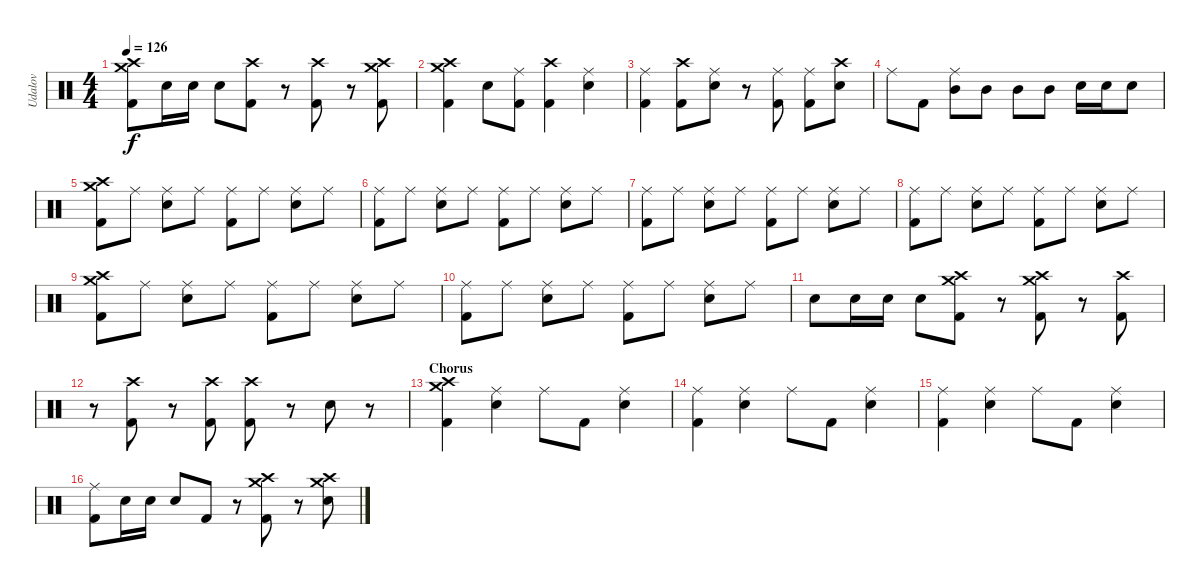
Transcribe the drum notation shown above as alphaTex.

\track ("Udalov" "Udalov") {instrument percussion}
\staff {score}
\articulation defaults
\ts (4 4)
\tempo 126
\clef neutral
\ks c
("Kick (hit) 2" "Crash high (hit)" "Crash medium (hit)").8{dy f} "Snare (hit) 2".16 "Electric Snare (hit)".16 "Snare (hit) 2".8 ("Kick (hit) 2" "Crash high (hit)").8 r.8 ("Kick (hit) 2" "Crash high (hit)").8 r.8 ("Kick (hit) 2" "Crash medium (hit)" "Crash high (hit)").8 |
("Kick (hit) 2" "Crash high (hit)" "Crash medium (hit)").4 "Snare (hit) 2".8 ("Kick (hit) 2" "Ride (middle)").8 ("Kick (hit) 2" "Crash high (hit)").4 ("Snare (hit) 2" "Ride (middle)").4 |
("Kick (hit) 2" "Ride (middle)").4 ("Kick (hit) 2" "Crash high (hit)").8 ("Snare (hit) 2" "Ride (middle)").8 r.8 ("Kick (hit) 2" "Ride (middle)").8 ("Kick (hit) 2" "Ride (middle)").8 ("Snare (hit) 2" "Crash high (hit)").8 |
"Ride (middle)".8 "Kick (hit) 2".8 ("Mid Tom (hit)" "Ride (middle)").8 "Mid Tom (hit)".8 "Mid Tom (hit)".8 "Mid Tom (hit)".8 "Electric Snare (hit)".16 "Electric Snare (hit)".16 "Electric Snare (hit)".8 |
("Kick (hit) 2" "Crash high (hit)" "Crash medium (hit)").8 "Ride (middle)".8 ("Snare (hit) 2" "Ride (middle)").8 "Ride (middle)".8 ("Kick (hit) 2" "Ride (middle)").8 "Ride (middle)".8 ("Snare (hit) 2" "Ride (middle)").8 "Ride (middle)".8 |
("Kick (hit) 2" "Ride (middle)").8 "Ride (middle)".8 ("Snare (hit) 2" "Ride (middle)").8 "Ride (middle)".8 ("Kick (hit) 2" "Ride (middle)").8 "Ride (middle)".8 ("Snare (hit) 2" "Ride (middle)").8 "Ride (middle)".8 |
("Kick (hit) 2" "Ride (middle)").8 "Ride (middle)".8 ("Snare (hit) 2" "Ride (middle)").8 "Ride (middle)".8 ("Kick (hit) 2" "Ride (middle)").8 "Ride (middle)".8 ("Snare (hit) 2" "Ride (middle)").8 "Ride (middle)".8 |
("Kick (hit) 2" "Ride (middle)").8 "Ride (middle)".8 ("Snare (hit) 2" "Ride (middle)").8 "Ride (middle)".8 ("Kick (hit) 2" "Ride (middle)").8 "Ride (middle)".8 ("Snare (hit) 2" "Ride (middle)").8 "Ride (middle)".8 |
("Kick (hit) 2" "Crash high (hit)" "Crash medium (hit)").8 "Ride (middle)".8 ("Snare (hit) 2" "Ride (middle)").8 "Ride (middle)".8 ("Kick (hit) 2" "Ride (middle)").8 "Ride (middle)".8 ("Snare (hit) 2" "Ride (middle)").8 "Ride (middle)".8 |
("Kick (hit) 2" "Ride (middle)").8 "Ride (middle)".8 ("Snare (hit) 2" "Ride (middle)").8 "Ride (middle)".8 ("Kick (hit) 2" "Ride (middle)").8 "Ride (middle)".8 ("Snare (hit) 2" "Ride (middle)").8 "Ride (middle)".8 |
"Snare (hit) 2".8 "Snare (hit) 2".16 "Snare (hit) 2".16 "Snare (hit) 2".8 ("Kick (hit) 2" "Crash high (hit)" "Crash medium (hit)").8 r.8 ("Kick (hit) 2" "Crash medium (hit)" "Crash high (hit)").8 r.8 ("Kick (hit) 2" "Crash high (hit)").8 |
r.8 ("Kick (hit) 2" "Crash high (hit)").8 r.8 ("Kick (hit) 2" "Crash high (hit)").8 ("Kick (hit) 2" "Crash high (hit)").8 r.8 "Snare (hit) 2".8 r.8 |
\section ("" "Chorus")
("Kick (hit) 2" "Crash high (hit)" "Crash medium (hit)").4 ("Snare (hit) 2" "Ride (middle)").4 "Ride (middle)".8 "Kick (hit) 2".8 ("Snare (hit) 2" "Ride (middle)").4 |
("Kick (hit) 2" "Ride (middle)").4 ("Snare (hit) 2" "Ride (middle)").4 "Ride (middle)".8 "Kick (hit) 2".8 ("Snare (hit) 2" "Ride (middle)").4 |
("Kick (hit) 2" "Ride (middle)").4 ("Snare (hit) 2" "Ride (middle)").4 "Ride (middle)".8 "Kick (hit) 2".8 ("Snare (hit) 2" "Ride (middle)").4 |
("Kick (hit) 2" "Ride (middle)").8 "Snare (hit) 2".16 "Snare (hit) 2".16 "Snare (hit) 2".8 "Kick (hit) 2".8 r.8 ("Kick (hit) 2" "Crash high (hit)" "Crash medium (hit)").8 r.8 ("Snare (hit) 2" "Crash high (hit)" "Crash medium (hit)").8
